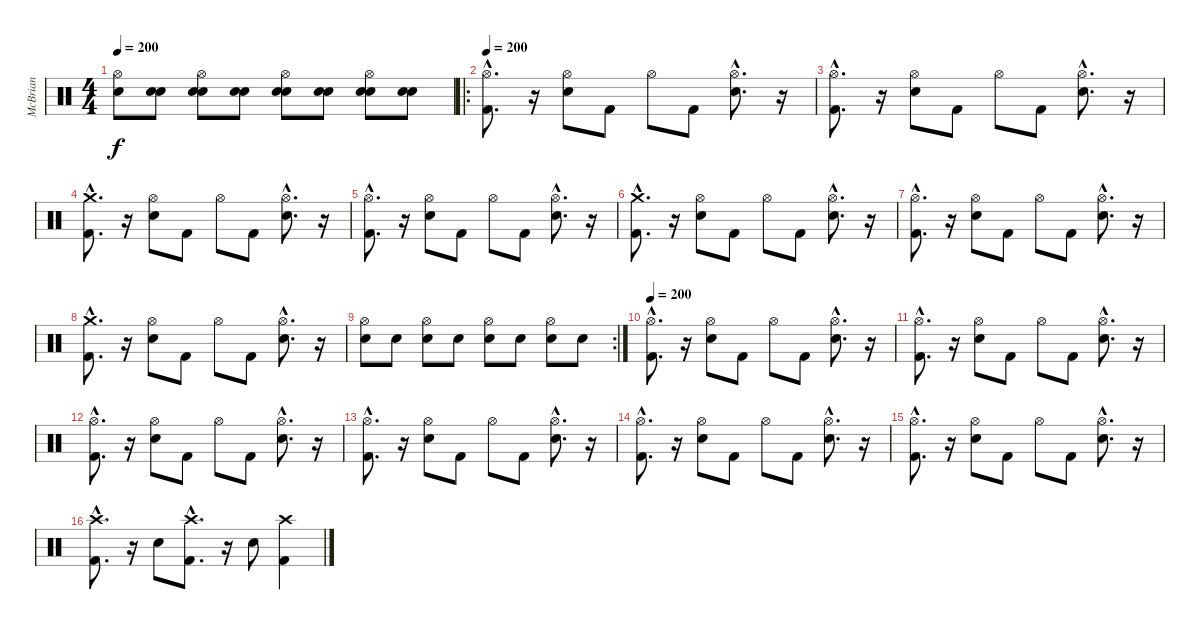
\track ("McBrian" "McBrian") {instrument percussion}
\staff {score}
\articulation defaults
\ts (4 4)
\tempo 200
\clef neutral
\ks c
("Snare (hit) 2" "Hi-Hat (open)").8{dy f} ("Snare (hit) 2" "Snare (hit) 2").8 ("Hi-Hat (open)" "Snare (hit) 2" "Snare (hit) 2").8 ("Snare (hit) 2" "Snare (hit) 2").8 ("Hi-Hat (open)" "Snare (hit) 2" "Snare (hit) 2").8 ("Snare (hit) 2" "Snare (hit) 2").8 ("Hi-Hat (open)" "Snare (hit) 2" "Snare (hit) 2").8 ("Snare (hit) 2" "Snare (hit) 2").8 |
\ro
\tempo 200
("Hi-Hat (open)"{hac} "Kick (hit) 2"{hac}).8{d} r.16 ("Snare (hit) 2" "Hi-Hat (open)").8 "Kick (hit) 2".8 "Hi-Hat (open)".8 "Kick (hit) 2".8 ("Hi-Hat (open)"{hac} "Snare (hit) 2"{hac}).8{d} r.16 |
("Hi-Hat (open)"{hac} "Kick (hit) 2"{hac}).8{d} r.16 ("Snare (hit) 2" "Hi-Hat (open)").8 "Kick (hit) 2".8 "Hi-Hat (open)".8 "Kick (hit) 2".8 ("Hi-Hat (open)"{hac} "Snare (hit) 2"{hac}).8{d} r.16 |
("Crash medium (hit)"{hac} "Kick (hit) 2"{hac}).8{d} r.16 ("Snare (hit) 2" "Hi-Hat (open)").8 "Kick (hit) 2".8 "Hi-Hat (open)".8 "Kick (hit) 2".8 ("Hi-Hat (open)"{hac} "Snare (hit) 2"{hac}).8{d} r.16 |
("Hi-Hat (open)"{hac} "Kick (hit) 2"{hac}).8{d} r.16 ("Snare (hit) 2" "Hi-Hat (open)").8 "Kick (hit) 2".8 "Hi-Hat (open)".8 "Kick (hit) 2".8 ("Hi-Hat (open)"{hac} "Snare (hit) 2"{hac}).8{d} r.16 |
("Crash medium (hit)"{hac} "Kick (hit) 2"{hac}).8{d} r.16 ("Snare (hit) 2" "Hi-Hat (open)").8 "Kick (hit) 2".8 "Hi-Hat (open)".8 "Kick (hit) 2".8 ("Hi-Hat (open)"{hac} "Snare (hit) 2"{hac}).8{d} r.16 |
("Hi-Hat (open)"{hac} "Kick (hit) 2"{hac}).8{d} r.16 ("Snare (hit) 2" "Hi-Hat (open)").8 "Kick (hit) 2".8 "Hi-Hat (open)".8 "Kick (hit) 2".8 ("Hi-Hat (open)"{hac} "Snare (hit) 2"{hac}).8{d} r.16 |
("Crash medium (hit)"{hac} "Kick (hit) 2"{hac}).8{d} r.16 ("Snare (hit) 2" "Hi-Hat (open)").8 "Kick (hit) 2".8 "Hi-Hat (open)".8 "Kick (hit) 2".8 ("Hi-Hat (open)"{hac} "Snare (hit) 2"{hac}).8{d} r.16 |
\rc 2
("Hi-Hat (open)" "Snare (hit) 2").8 "Snare (hit) 2".8 ("Hi-Hat (open)" "Snare (hit) 2").8 "Snare (hit) 2".8 ("Hi-Hat (open)" "Snare (hit) 2").8 "Snare (hit) 2".8 ("Hi-Hat (open)" "Snare (hit) 2").8 "Snare (hit) 2".8 |
\tempo 200
("Hi-Hat (open)"{hac} "Kick (hit) 2"{hac}).8{d} r.16 ("Snare (hit) 2" "Hi-Hat (open)").8 "Kick (hit) 2".8 "Hi-Hat (open)".8 "Kick (hit) 2".8 ("Hi-Hat (open)"{hac} "Snare (hit) 2"{hac}).8{d} r.16 |
("Hi-Hat (open)"{hac} "Kick (hit) 2"{hac}).8{d} r.16 ("Snare (hit) 2" "Hi-Hat (open)").8 "Kick (hit) 2".8 "Hi-Hat (open)".8 "Kick (hit) 2".8 ("Hi-Hat (open)"{hac} "Snare (hit) 2"{hac}).8{d} r.16 |
("Hi-Hat (open)"{hac} "Kick (hit) 2"{hac}).8{d} r.16 ("Snare (hit) 2" "Hi-Hat (open)").8 "Kick (hit) 2".8 "Hi-Hat (open)".8 "Kick (hit) 2".8 ("Hi-Hat (open)"{hac} "Snare (hit) 2"{hac}).8{d} r.16 |
("Hi-Hat (open)"{hac} "Kick (hit) 2"{hac}).8{d} r.16 ("Snare (hit) 2" "Hi-Hat (open)").8 "Kick (hit) 2".8 "Hi-Hat (open)".8 "Kick (hit) 2".8 ("Hi-Hat (open)"{hac} "Snare (hit) 2"{hac}).8{d} r.16 |
("Hi-Hat (open)"{hac} "Kick (hit) 2"{hac}).8{d} r.16 ("Snare (hit) 2" "Hi-Hat (open)").8 "Kick (hit) 2".8 "Hi-Hat (open)".8 "Kick (hit) 2".8 ("Hi-Hat (open)"{hac} "Snare (hit) 2"{hac}).8{d} r.16 |
("Hi-Hat (open)"{hac} "Kick (hit) 2"{hac}).8{d} r.16 ("Snare (hit) 2" "Hi-Hat (open)").8 "Kick (hit) 2".8 "Hi-Hat (open)".8 "Kick (hit) 2".8 ("Hi-Hat (open)"{hac} "Snare (hit) 2"{hac}).8{d} r.16 |
("Crash high (hit)"{hac} "Kick (hit) 2"{hac}).8{d} r.16 "Snare (hit) 2".8 ("Crash high (hit)"{hac} "Kick (hit) 2"{hac}).8{d} r.16 "Snare (hit) 2".8 ("Crash high (hit)" "Kick (hit) 2").4
